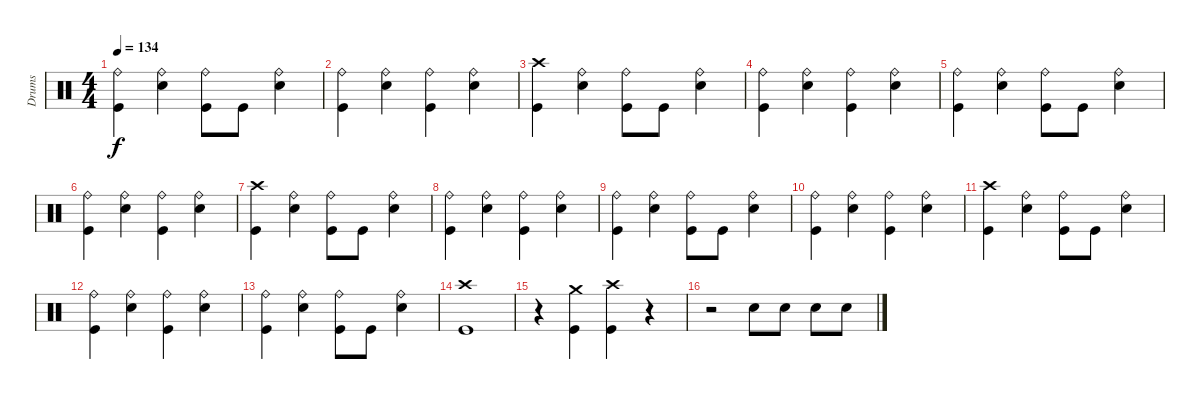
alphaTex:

\track ("Drums" "Drums") {instrument percussion}
\staff {score}
\articulation defaults
\ts (4 4)
\tempo 134
\clef neutral
\ks c
("Ride (bell)" "Kick (hit)").4{dy f} ("Ride (bell)" "Snare (hit) 2").4 ("Ride (bell)" "Kick (hit)").8 "Kick (hit)".8 ("Ride (bell)" "Snare (hit) 2").4 |
("Ride (bell)" "Kick (hit)").4 ("Ride (bell)" "Snare (hit) 2").4 ("Ride (bell)" "Kick (hit)").4 ("Ride (bell)" "Snare (hit) 2").4 |
("Crash high (hit)" "Kick (hit)").4 ("Ride (bell)" "Snare (hit) 2").4 ("Ride (bell)" "Kick (hit)").8 "Kick (hit)".8 ("Ride (bell)" "Snare (hit) 2").4 |
("Ride (bell)" "Kick (hit)").4 ("Ride (bell)" "Snare (hit) 2").4 ("Ride (bell)" "Kick (hit)").4 ("Ride (bell)" "Snare (hit) 2").4 |
("Ride (bell)" "Kick (hit)").4 ("Ride (bell)" "Snare (hit) 2").4 ("Ride (bell)" "Kick (hit)").8 "Kick (hit)".8 ("Ride (bell)" "Snare (hit) 2").4 |
("Ride (bell)" "Kick (hit)").4 ("Ride (bell)" "Snare (hit) 2").4 ("Ride (bell)" "Kick (hit)").4 ("Ride (bell)" "Snare (hit) 2").4 |
("Crash high (hit)" "Kick (hit)").4 ("Ride (bell)" "Snare (hit) 2").4 ("Ride (bell)" "Kick (hit)").8 "Kick (hit)".8 ("Ride (bell)" "Snare (hit) 2").4 |
("Ride (bell)" "Kick (hit)").4 ("Ride (bell)" "Snare (hit) 2").4 ("Ride (bell)" "Kick (hit)").4 ("Ride (bell)" "Snare (hit) 2").4 |
("Ride (bell)" "Kick (hit)").4 ("Ride (bell)" "Snare (hit) 2").4 ("Ride (bell)" "Kick (hit)").8 "Kick (hit)".8 ("Ride (bell)" "Snare (hit) 2").4 |
("Ride (bell)" "Kick (hit)").4 ("Ride (bell)" "Snare (hit) 2").4 ("Ride (bell)" "Kick (hit)").4 ("Ride (bell)" "Snare (hit) 2").4 |
("Crash high (hit)" "Kick (hit)").4 ("Ride (bell)" "Snare (hit) 2").4 ("Ride (bell)" "Kick (hit)").8 "Kick (hit)".8 ("Ride (bell)" "Snare (hit) 2").4 |
("Ride (bell)" "Kick (hit)").4 ("Ride (bell)" "Snare (hit) 2").4 ("Ride (bell)" "Kick (hit)").4 ("Ride (bell)" "Snare (hit) 2").4 |
("Ride (bell)" "Kick (hit)").4 ("Ride (bell)" "Snare (hit) 2").4 ("Ride (bell)" "Kick (hit)").8 "Kick (hit)".8 ("Ride (bell)" "Snare (hit) 2").4 |
("Crash high (hit)" "Kick (hit)").1 |
r.4 ("Crash medium (hit)" "Kick (hit)").4 ("Crash high (hit)" "Kick (hit)").4 r.4 |
r.2 "Snare (hit) 2".8 "Snare (hit) 2".8 "Snare (hit) 2".8 "Snare (hit) 2".8
